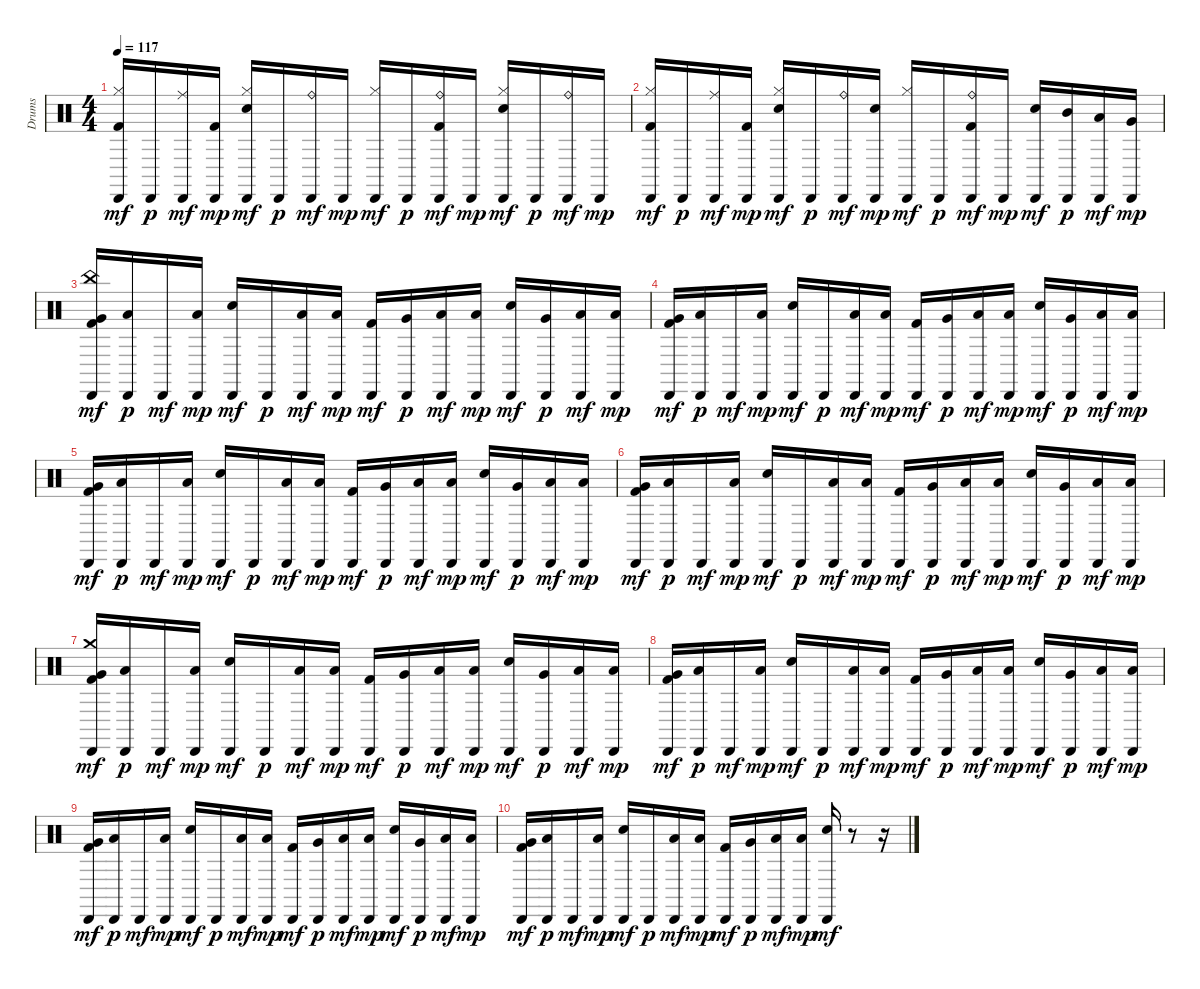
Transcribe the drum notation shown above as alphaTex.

\track ("Drums" "Drums") {instrument percussion}
\staff {score}
\articulation defaults
\ts (4 4)
\tempo 117
\clef neutral
\ks c
("Kick (hit) 2" "Hi-Hat (closed)" "Cabasa (hit)").16{dy mf} "Cabasa (hit)".16{dy p} ("Ride (middle)" "Cabasa (hit)").16{dy mf} ("Kick (hit) 2" "Cabasa (hit)").16{dy mp} ("Snare (hit) 2" "Hi-Hat (closed)" "Cabasa (hit)").16{dy mf} "Cabasa (hit)".16{dy p} ("Ride (bell)" "Cabasa (hit)").16{dy mf} "Cabasa (hit)".16{dy mp} ("Hi-Hat (closed)" "Cabasa (hit)").16{dy mf} "Cabasa (hit)".16{dy p} ("Ride (bell)" "Kick (hit) 2" "Cabasa (hit)").16{dy mf} "Cabasa (hit)".16{dy mp} ("Hi-Hat (closed)" "Snare (hit) 2" "Cabasa (hit)").16{dy mf} "Cabasa (hit)".16{dy p} ("Ride (bell)" "Cabasa (hit)").16{dy mf} "Cabasa (hit)".16{dy mp} |
("Hi-Hat (closed)" "Kick (hit) 2" "Cabasa (hit)").16{dy mf} "Cabasa (hit)".16{dy p} ("Ride (middle)" "Cabasa (hit)").16{dy mf} ("Kick (hit) 2" "Cabasa (hit)").16{dy mp} ("Hi-Hat (closed)" "Snare (hit) 2" "Cabasa (hit)").16{dy mf} "Cabasa (hit)".16{dy p} ("Ride (bell)" "Cabasa (hit)").16{dy mf} ("Snare (hit) 2" "Cabasa (hit)").16{dy mp} ("Hi-Hat (closed)" "Cabasa (hit)").16{dy mf} "Cabasa (hit)".16{dy p} ("Kick (hit) 2" "Ride (bell)" "Cabasa (hit)").16{dy mf} "Cabasa (hit)".16{dy mp} ("Snare (hit) 2" "Cabasa (hit)").16{dy mf} ("Mid Tom (hit)" "Cabasa (hit)").16{dy p} ("Low Tom (hit)" "Cabasa (hit)").16{dy mf} ("Very Low Tom (hit)" "Cabasa (hit)").16{dy mp} |
("China (hit)" "Kick (hit) 2" "Very Low Tom (hit)" "Cabasa (hit)").16{dy mf} ("Low Floor Tom (hit)" "Cabasa (hit)").16{dy p} "Cabasa (hit)".16{dy mf} ("Low Floor Tom (hit)" "Cabasa (hit)").16{dy mp} ("Snare (hit) 2" "Cabasa (hit)").16{dy mf} "Cabasa (hit)".16{dy p} ("Low Floor Tom (hit)" "Cabasa (hit)").16{dy mf} ("Low Floor Tom (hit)" "Cabasa (hit)").16{dy mp} ("Kick (hit) 2" "Cabasa (hit)").16{dy mf} ("Very Low Tom (hit)" "Cabasa (hit)").16{dy p} ("Low Floor Tom (hit)" "Cabasa (hit)").16{dy mf} ("Low Floor Tom (hit)" "Cabasa (hit)").16{dy mp} ("Snare (hit) 2" "Cabasa (hit)").16{dy mf} ("Very Low Tom (hit)" "Cabasa (hit)").16{dy p} ("Low Floor Tom (hit)" "Cabasa (hit)").16{dy mf} ("Low Floor Tom (hit)" "Cabasa (hit)").16{dy mp} |
("Very Low Tom (hit)" "Kick (hit) 2" "Cabasa (hit)").16{dy mf} ("Low Floor Tom (hit)" "Cabasa (hit)").16{dy p} "Cabasa (hit)".16{dy mf} ("Low Floor Tom (hit)" "Cabasa (hit)").16{dy mp} ("Snare (hit) 2" "Cabasa (hit)").16{dy mf} "Cabasa (hit)".16{dy p} ("Low Floor Tom (hit)" "Cabasa (hit)").16{dy mf} ("Low Floor Tom (hit)" "Cabasa (hit)").16{dy mp} ("Kick (hit) 2" "Cabasa (hit)").16{dy mf} ("Very Low Tom (hit)" "Cabasa (hit)").16{dy p} ("Low Floor Tom (hit)" "Cabasa (hit)").16{dy mf} ("Low Floor Tom (hit)" "Cabasa (hit)").16{dy mp} ("Snare (hit) 2" "Cabasa (hit)").16{dy mf} ("Very Low Tom (hit)" "Cabasa (hit)").16{dy p} ("Low Floor Tom (hit)" "Cabasa (hit)").16{dy mf} ("Low Floor Tom (hit)" "Cabasa (hit)").16{dy mp} |
("Kick (hit) 2" "Very Low Tom (hit)" "Cabasa (hit)").16{dy mf} ("Low Floor Tom (hit)" "Cabasa (hit)").16{dy p} "Cabasa (hit)".16{dy mf} ("Low Floor Tom (hit)" "Cabasa (hit)").16{dy mp} ("Snare (hit) 2" "Cabasa (hit)").16{dy mf} "Cabasa (hit)".16{dy p} ("Low Floor Tom (hit)" "Cabasa (hit)").16{dy mf} ("Low Floor Tom (hit)" "Cabasa (hit)").16{dy mp} ("Kick (hit) 2" "Cabasa (hit)").16{dy mf} ("Very Low Tom (hit)" "Cabasa (hit)").16{dy p} ("Low Floor Tom (hit)" "Cabasa (hit)").16{dy mf} ("Low Floor Tom (hit)" "Cabasa (hit)").16{dy mp} ("Snare (hit) 2" "Cabasa (hit)").16{dy mf} ("Very Low Tom (hit)" "Cabasa (hit)").16{dy p} ("Low Floor Tom (hit)" "Cabasa (hit)").16{dy mf} ("Low Floor Tom (hit)" "Cabasa (hit)").16{dy mp} |
("Kick (hit) 2" "Very Low Tom (hit)" "Cabasa (hit)").16{dy mf} ("Low Floor Tom (hit)" "Cabasa (hit)").16{dy p} "Cabasa (hit)".16{dy mf} ("Low Floor Tom (hit)" "Cabasa (hit)").16{dy mp} ("Snare (hit) 2" "Cabasa (hit)").16{dy mf} "Cabasa (hit)".16{dy p} ("Low Floor Tom (hit)" "Cabasa (hit)").16{dy mf} ("Low Floor Tom (hit)" "Cabasa (hit)").16{dy mp} ("Kick (hit) 2" "Cabasa (hit)").16{dy mf} ("Very Low Tom (hit)" "Cabasa (hit)").16{dy p} ("Low Floor Tom (hit)" "Cabasa (hit)").16{dy mf} ("Low Floor Tom (hit)" "Cabasa (hit)").16{dy mp} ("Snare (hit) 2" "Cabasa (hit)").16{dy mf} ("Very Low Tom (hit)" "Cabasa (hit)").16{dy p} ("Low Floor Tom (hit)" "Cabasa (hit)").16{dy mf} ("Low Floor Tom (hit)" "Cabasa (hit)").16{dy mp} |
("Crash medium (hit)" "Kick (hit) 2" "Very Low Tom (hit)" "Cabasa (hit)").16{dy mf} ("Low Floor Tom (hit)" "Cabasa (hit)").16{dy p} "Cabasa (hit)".16{dy mf} ("Low Floor Tom (hit)" "Cabasa (hit)").16{dy mp} ("Snare (hit) 2" "Cabasa (hit)").16{dy mf} "Cabasa (hit)".16{dy p} ("Low Floor Tom (hit)" "Cabasa (hit)").16{dy mf} ("Low Floor Tom (hit)" "Cabasa (hit)").16{dy mp} ("Kick (hit) 2" "Cabasa (hit)").16{dy mf} ("Very Low Tom (hit)" "Cabasa (hit)").16{dy p} ("Low Floor Tom (hit)" "Cabasa (hit)").16{dy mf} ("Low Floor Tom (hit)" "Cabasa (hit)").16{dy mp} ("Snare (hit) 2" "Cabasa (hit)").16{dy mf} ("Very Low Tom (hit)" "Cabasa (hit)").16{dy p} ("Low Floor Tom (hit)" "Cabasa (hit)").16{dy mf} ("Low Floor Tom (hit)" "Cabasa (hit)").16{dy mp} |
("Kick (hit) 2" "Very Low Tom (hit)" "Cabasa (hit)").16{dy mf} ("Low Floor Tom (hit)" "Cabasa (hit)").16{dy p} "Cabasa (hit)".16{dy mf} ("Low Floor Tom (hit)" "Cabasa (hit)").16{dy mp} ("Snare (hit) 2" "Cabasa (hit)").16{dy mf} "Cabasa (hit)".16{dy p} ("Low Floor Tom (hit)" "Cabasa (hit)").16{dy mf} ("Low Floor Tom (hit)" "Cabasa (hit)").16{dy mp} ("Kick (hit) 2" "Cabasa (hit)").16{dy mf} ("Very Low Tom (hit)" "Cabasa (hit)").16{dy p} ("Low Floor Tom (hit)" "Cabasa (hit)").16{dy mf} ("Low Floor Tom (hit)" "Cabasa (hit)").16{dy mp} ("Snare (hit) 2" "Cabasa (hit)").16{dy mf} ("Very Low Tom (hit)" "Cabasa (hit)").16{dy p} ("Low Floor Tom (hit)" "Cabasa (hit)").16{dy mf} ("Low Floor Tom (hit)" "Cabasa (hit)").16{dy mp} |
("Very Low Tom (hit)" "Kick (hit) 2" "Cabasa (hit)").16{dy mf} ("Low Floor Tom (hit)" "Cabasa (hit)").16{dy p} "Cabasa (hit)".16{dy mf} ("Low Floor Tom (hit)" "Cabasa (hit)").16{dy mp} ("Snare (hit) 2" "Cabasa (hit)").16{dy mf} "Cabasa (hit)".16{dy p} ("Low Floor Tom (hit)" "Cabasa (hit)").16{dy mf} ("Low Floor Tom (hit)" "Cabasa (hit)").16{dy mp} ("Kick (hit) 2" "Cabasa (hit)").16{dy mf} ("Very Low Tom (hit)" "Cabasa (hit)").16{dy p} ("Low Floor Tom (hit)" "Cabasa (hit)").16{dy mf} ("Low Floor Tom (hit)" "Cabasa (hit)").16{dy mp} ("Snare (hit) 2" "Cabasa (hit)").16{dy mf} ("Very Low Tom (hit)" "Cabasa (hit)").16{dy p} ("Low Floor Tom (hit)" "Cabasa (hit)").16{dy mf} ("Low Floor Tom (hit)" "Cabasa (hit)").16{dy mp} |
("Very Low Tom (hit)" "Kick (hit) 2" "Cabasa (hit)").16{dy mf} ("Low Floor Tom (hit)" "Cabasa (hit)").16{dy p} "Cabasa (hit)".16{dy mf} ("Low Floor Tom (hit)" "Cabasa (hit)").16{dy mp} ("Snare (hit) 2" "Cabasa (hit)").16{dy mf} "Cabasa (hit)".16{dy p} ("Low Floor Tom (hit)" "Cabasa (hit)").16{dy mf} ("Low Floor Tom (hit)" "Cabasa (hit)").16{dy mp} ("Kick (hit) 2" "Cabasa (hit)").16{dy mf} ("Very Low Tom (hit)" "Cabasa (hit)").16{dy p} ("Low Floor Tom (hit)" "Cabasa (hit)").16{dy mf} ("Low Floor Tom (hit)" "Cabasa (hit)").16{dy mp} ("Snare (hit) 2" "Cabasa (hit)").16{dy mf} r.8 r.16
